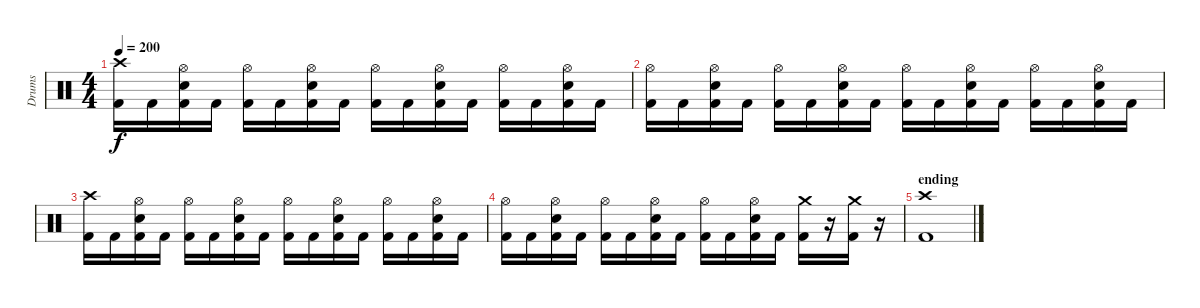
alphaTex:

\track ("Drums" "Drums") {instrument percussion}
\staff {score}
\articulation defaults
\ts (4 4)
\tempo 200
\clef neutral
\ks c
("Crash high (hit)" "Kick (hit) 2").16{dy f} "Kick (hit) 2".16 ("Hi-Hat (open)" "Electric Snare (hit)" "Kick (hit) 2").16 "Kick (hit) 2".16 ("Hi-Hat (open)" "Kick (hit) 2").16 "Kick (hit) 2".16 ("Hi-Hat (open)" "Electric Snare (hit)" "Kick (hit) 2").16 "Kick (hit) 2".16 ("Hi-Hat (open)" "Kick (hit) 2").16 "Kick (hit) 2".16 ("Hi-Hat (open)" "Electric Snare (hit)" "Kick (hit) 2").16 "Kick (hit) 2".16 ("Hi-Hat (open)" "Kick (hit) 2").16 "Kick (hit) 2".16 ("Hi-Hat (open)" "Electric Snare (hit)" "Kick (hit) 2").16 "Kick (hit) 2".16 |
("Hi-Hat (open)" "Kick (hit) 2").16 "Kick (hit) 2".16 ("Hi-Hat (open)" "Electric Snare (hit)" "Kick (hit) 2").16 "Kick (hit) 2".16 ("Hi-Hat (open)" "Kick (hit) 2").16 "Kick (hit) 2".16 ("Hi-Hat (open)" "Electric Snare (hit)" "Kick (hit) 2").16 "Kick (hit) 2".16 ("Hi-Hat (open)" "Kick (hit) 2").16 "Kick (hit) 2".16 ("Hi-Hat (open)" "Electric Snare (hit)" "Kick (hit) 2").16 "Kick (hit) 2".16 ("Hi-Hat (open)" "Kick (hit) 2").16 "Kick (hit) 2".16 ("Hi-Hat (open)" "Electric Snare (hit)" "Kick (hit) 2").16 "Kick (hit) 2".16 |
("Crash high (hit)" "Kick (hit) 2").16 "Kick (hit) 2".16 ("Hi-Hat (open)" "Electric Snare (hit)" "Kick (hit) 2").16 "Kick (hit) 2".16 ("Hi-Hat (open)" "Kick (hit) 2").16 "Kick (hit) 2".16 ("Hi-Hat (open)" "Electric Snare (hit)" "Kick (hit) 2").16 "Kick (hit) 2".16 ("Hi-Hat (open)" "Kick (hit) 2").16 "Kick (hit) 2".16 ("Hi-Hat (open)" "Electric Snare (hit)" "Kick (hit) 2").16 "Kick (hit) 2".16 ("Hi-Hat (open)" "Kick (hit) 2").16 "Kick (hit) 2".16 ("Hi-Hat (open)" "Electric Snare (hit)" "Kick (hit) 2").16 "Kick (hit) 2".16 |
("Hi-Hat (open)" "Kick (hit) 2").16 "Kick (hit) 2".16 ("Hi-Hat (open)" "Electric Snare (hit)" "Kick (hit) 2").16 "Kick (hit) 2".16 ("Hi-Hat (open)" "Kick (hit) 2").16 "Kick (hit) 2".16 ("Hi-Hat (open)" "Electric Snare (hit)" "Kick (hit) 2").16 "Kick (hit) 2".16 ("Hi-Hat (open)" "Kick (hit) 2").16 "Kick (hit) 2".16 ("Hi-Hat (open)" "Electric Snare (hit)" "Kick (hit) 2").16 "Kick (hit) 2".16 ("Crash medium (hit)" "Kick (hit) 2").16 r.16 ("Crash medium (hit)" "Kick (hit) 2").16 r.16 |
\section ("" "ending")
("Crash high (hit)" "Kick (hit) 2").1
